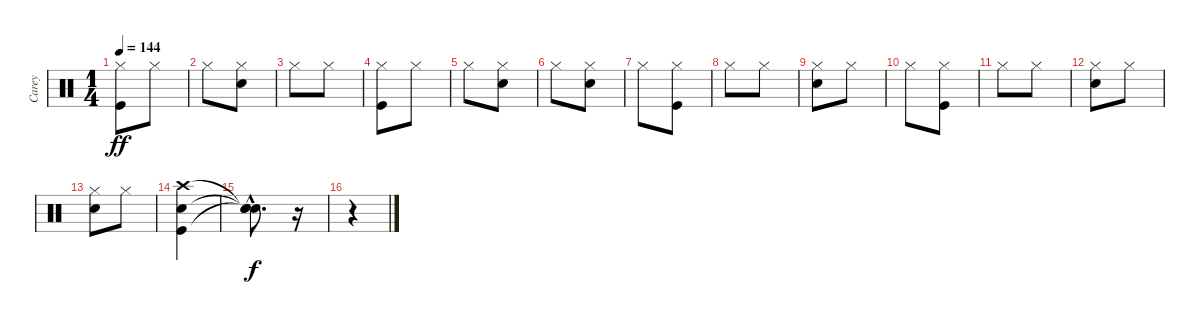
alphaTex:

\track ("Carey" "Carey") {instrument percussion}
\staff {score}
\articulation defaults
\ts (1 4)
\tempo 144
\clef neutral
\ks c
("Kick (hit)" "Hi-Hat (closed)").8{dy ff} "Hi-Hat (closed)".8 |
"Hi-Hat (closed)".8 ("Snare (hit) 2" "Hi-Hat (closed)").8 |
"Hi-Hat (closed)".8 "Hi-Hat (closed)".8 |
("Kick (hit)" "Hi-Hat (closed)").8 "Hi-Hat (closed)".8 |
"Hi-Hat (closed)".8 ("Snare (hit) 2" "Hi-Hat (closed)").8 |
"Hi-Hat (closed)".8 ("Snare (hit) 2" "Hi-Hat (closed)").8 |
"Hi-Hat (closed)".8 ("Kick (hit)" "Hi-Hat (closed)").8 |
"Hi-Hat (closed)".8 "Hi-Hat (closed)".8 |
("Snare (hit) 2" "Hi-Hat (closed)").8 "Hi-Hat (closed)".8 |
"Hi-Hat (closed)".8 ("Kick (hit)" "Hi-Hat (closed)").8 |
"Hi-Hat (closed)".8 "Hi-Hat (closed)".8 |
("Snare (hit) 2" "Hi-Hat (closed)").8 "Hi-Hat (closed)".8 |
("Snare (hit) 2" "Hi-Hat (closed)").8 "Hi-Hat (closed)".8 |
("Kick (hit)" "Snare (hit) 2" "Crash high (hit)").4 |
("Snare (hit)"{hac t} "Snare (hit)"{hac t} "Snare (hit)"{hac t}).8{d dy f} r.16 |
r.4
